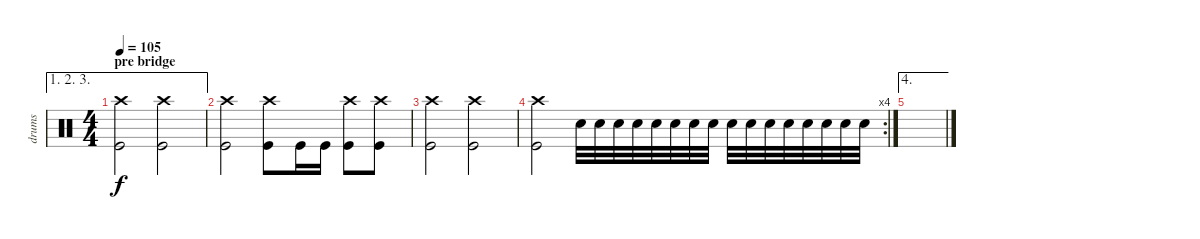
\track ("drums" "drums") {instrument percussion}
\staff {score}
\articulation defaults
\ae (1 2 3)
\ts (4 4)
\section ("" "pre bridge")
\tempo 105
\clef neutral
\ks c
("Crash high (hit)" "Kick (hit)").2{dy f} ("Crash high (hit)" "Kick (hit)").2 |
("Crash high (hit)" "Kick (hit)").2 ("Crash high (hit)" "Kick (hit)").8 "Kick (hit)".16 "Kick (hit)".16 ("Crash high (hit)" "Kick (hit)").8 ("Crash high (hit)" "Kick (hit)").8 |
("Crash high (hit)" "Kick (hit)").2 ("Crash high (hit)" "Kick (hit)").2 |
\rc 4
("Crash high (hit)" "Kick (hit)").2 "Electric Snare (hit)".32 "Electric Snare (hit)".32 "Electric Snare (hit)".32 "Electric Snare (hit)".32 "Electric Snare (hit)".32 "Electric Snare (hit)".32 "Electric Snare (hit)".32 "Electric Snare (hit)".32 "Electric Snare (hit)".32 "Electric Snare (hit)".32 "Electric Snare (hit)".32 "Electric Snare (hit)".32 "Electric Snare (hit)".32 "Electric Snare (hit)".32 "Electric Snare (hit)".32 "Electric Snare (hit)".32 |
\ae 4
